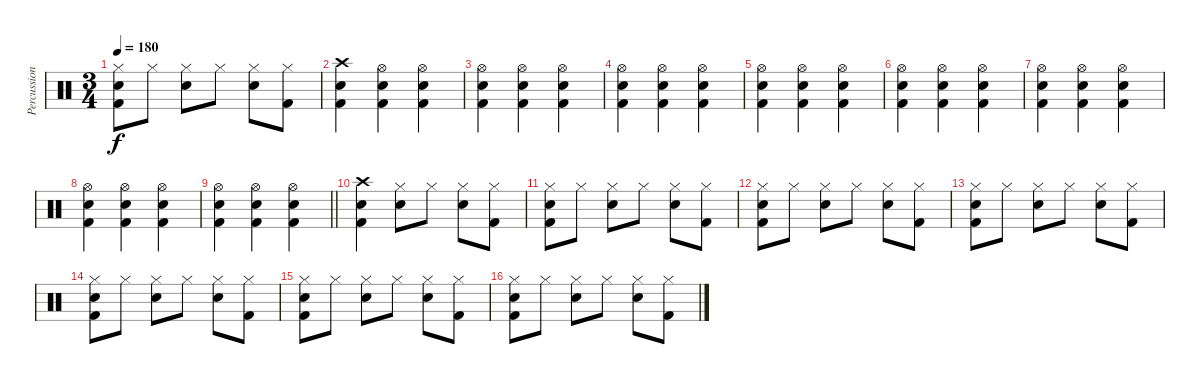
\track ("Percussion" "Percussion") {instrument percussion}
\staff {score}
\articulation defaults
\ts (3 4)
\tempo 180
\clef neutral
\ks c
("Hi-Hat (closed)" "Electric Snare (hit)" "Kick (hit) 2").8{dy f} "Hi-Hat (closed)".8 ("Hi-Hat (closed)" "Electric Snare (hit)").8 "Hi-Hat (closed)".8 ("Hi-Hat (closed)" "Electric Snare (hit)").8 ("Hi-Hat (closed)" "Kick (hit) 2").8 |
("Crash high (hit)" "Electric Snare (hit)" "Kick (hit) 2").4 ("Hi-Hat (open)" "Electric Snare (hit)" "Kick (hit) 2").4 ("Hi-Hat (open)" "Electric Snare (hit)" "Kick (hit) 2").4 |
("Hi-Hat (open)" "Electric Snare (hit)" "Kick (hit) 2").4 ("Hi-Hat (open)" "Electric Snare (hit)" "Kick (hit) 2").4 ("Hi-Hat (open)" "Electric Snare (hit)" "Kick (hit) 2").4 |
("Hi-Hat (open)" "Electric Snare (hit)" "Kick (hit) 2").4 ("Hi-Hat (open)" "Electric Snare (hit)" "Kick (hit) 2").4 ("Hi-Hat (open)" "Electric Snare (hit)" "Kick (hit) 2").4 |
("Hi-Hat (open)" "Electric Snare (hit)" "Kick (hit) 2").4 ("Hi-Hat (open)" "Electric Snare (hit)" "Kick (hit) 2").4 ("Hi-Hat (open)" "Electric Snare (hit)" "Kick (hit) 2").4 |
("Hi-Hat (open)" "Electric Snare (hit)" "Kick (hit) 2").4 ("Hi-Hat (open)" "Electric Snare (hit)" "Kick (hit) 2").4 ("Hi-Hat (open)" "Electric Snare (hit)" "Kick (hit) 2").4 |
("Hi-Hat (open)" "Electric Snare (hit)" "Kick (hit) 2").4 ("Hi-Hat (open)" "Electric Snare (hit)" "Kick (hit) 2").4 ("Hi-Hat (open)" "Electric Snare (hit)" "Kick (hit) 2").4 |
("Hi-Hat (open)" "Electric Snare (hit)" "Kick (hit) 2").4 ("Hi-Hat (open)" "Electric Snare (hit)" "Kick (hit) 2").4 ("Hi-Hat (open)" "Electric Snare (hit)" "Kick (hit) 2").4 |
\barLineRight lightlight
("Hi-Hat (open)" "Electric Snare (hit)" "Kick (hit) 2").4 ("Hi-Hat (open)" "Electric Snare (hit)" "Kick (hit) 2").4 ("Hi-Hat (open)" "Electric Snare (hit)" "Kick (hit) 2").4 |
("Crash high (hit)" "Electric Snare (hit)" "Kick (hit) 2").4 ("Hi-Hat (closed)" "Electric Snare (hit)").8 "Hi-Hat (closed)".8 ("Hi-Hat (closed)" "Electric Snare (hit)").8 ("Hi-Hat (closed)" "Kick (hit) 2").8 |
("Hi-Hat (closed)" "Electric Snare (hit)" "Kick (hit) 2").8 "Hi-Hat (closed)".8 ("Hi-Hat (closed)" "Electric Snare (hit)").8 "Hi-Hat (closed)".8 ("Hi-Hat (closed)" "Electric Snare (hit)").8 ("Hi-Hat (closed)" "Kick (hit) 2").8 |
("Hi-Hat (closed)" "Electric Snare (hit)" "Kick (hit) 2").8 "Hi-Hat (closed)".8 ("Hi-Hat (closed)" "Electric Snare (hit)").8 "Hi-Hat (closed)".8 ("Hi-Hat (closed)" "Electric Snare (hit)").8 ("Hi-Hat (closed)" "Kick (hit) 2").8 |
("Hi-Hat (closed)" "Electric Snare (hit)" "Kick (hit) 2").8 "Hi-Hat (closed)".8 ("Hi-Hat (closed)" "Electric Snare (hit)").8 "Hi-Hat (closed)".8 ("Hi-Hat (closed)" "Electric Snare (hit)").8 ("Hi-Hat (closed)" "Kick (hit) 2").8 |
("Hi-Hat (closed)" "Electric Snare (hit)" "Kick (hit) 2").8 "Hi-Hat (closed)".8 ("Hi-Hat (closed)" "Electric Snare (hit)").8 "Hi-Hat (closed)".8 ("Hi-Hat (closed)" "Electric Snare (hit)").8 ("Hi-Hat (closed)" "Kick (hit) 2").8 |
("Hi-Hat (closed)" "Electric Snare (hit)" "Kick (hit) 2").8 "Hi-Hat (closed)".8 ("Hi-Hat (closed)" "Electric Snare (hit)").8 "Hi-Hat (closed)".8 ("Hi-Hat (closed)" "Electric Snare (hit)").8 ("Hi-Hat (closed)" "Kick (hit) 2").8 |
("Hi-Hat (closed)" "Electric Snare (hit)" "Kick (hit) 2").8 "Hi-Hat (closed)".8 ("Hi-Hat (closed)" "Electric Snare (hit)").8 "Hi-Hat (closed)".8 ("Hi-Hat (closed)" "Electric Snare (hit)").8 ("Hi-Hat (closed)" "Kick (hit) 2").8
